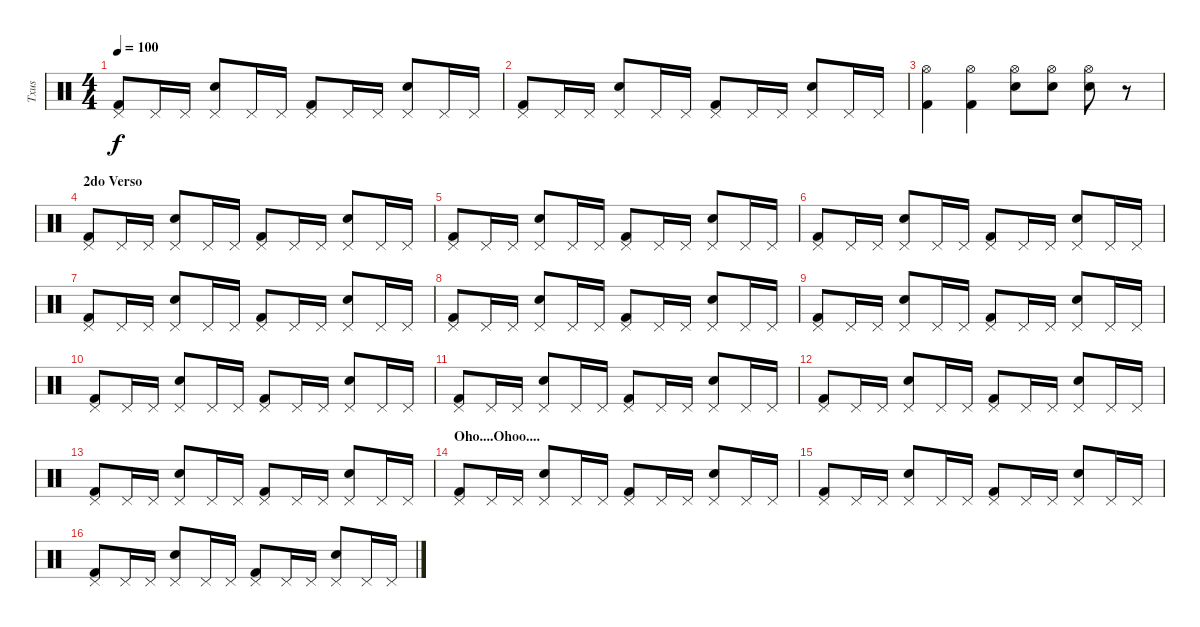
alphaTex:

\track ("Txus" "Txus") {instrument percussion}
\staff {score}
\articulation defaults
\ts (4 4)
\tempo 100
\clef neutral
\ks c
("Pedal Hi-Hat (hit)" "Kick (hit) 2").8{dy f} "Pedal Hi-Hat (hit)".16 "Pedal Hi-Hat (hit)".16 ("Pedal Hi-Hat (hit)" "Snare (hit) 2").8 "Pedal Hi-Hat (hit)".16 "Pedal Hi-Hat (hit)".16 ("Pedal Hi-Hat (hit)" "Kick (hit) 2").8 "Pedal Hi-Hat (hit)".16 "Pedal Hi-Hat (hit)".16 ("Pedal Hi-Hat (hit)" "Snare (hit) 2").8 "Pedal Hi-Hat (hit)".16 "Pedal Hi-Hat (hit)".16 |
("Pedal Hi-Hat (hit)" "Kick (hit) 2").8 "Pedal Hi-Hat (hit)".16 "Pedal Hi-Hat (hit)".16 ("Pedal Hi-Hat (hit)" "Snare (hit) 2").8 "Pedal Hi-Hat (hit)".16 "Pedal Hi-Hat (hit)".16 ("Pedal Hi-Hat (hit)" "Kick (hit) 2").8 "Pedal Hi-Hat (hit)".16 "Pedal Hi-Hat (hit)".16 ("Pedal Hi-Hat (hit)" "Snare (hit) 2").8 "Pedal Hi-Hat (hit)".16 "Pedal Hi-Hat (hit)".16 |
("Hi-Hat (open)" "Kick (hit) 2").4 ("Hi-Hat (open)" "Kick (hit) 2").4 ("Snare (hit) 2" "Hi-Hat (open)").8 ("Snare (hit) 2" "Hi-Hat (open)").8 ("Snare (hit) 2" "Hi-Hat (open)").8 r.8 |
\section ("" "2do Verso")
("Pedal Hi-Hat (hit)" "Kick (hit) 2").8 "Pedal Hi-Hat (hit)".16 "Pedal Hi-Hat (hit)".16 ("Pedal Hi-Hat (hit)" "Snare (hit) 2").8 "Pedal Hi-Hat (hit)".16 "Pedal Hi-Hat (hit)".16 ("Pedal Hi-Hat (hit)" "Kick (hit) 2").8 "Pedal Hi-Hat (hit)".16 "Pedal Hi-Hat (hit)".16 ("Pedal Hi-Hat (hit)" "Snare (hit) 2").8 "Pedal Hi-Hat (hit)".16 "Pedal Hi-Hat (hit)".16 |
("Pedal Hi-Hat (hit)" "Kick (hit) 2").8 "Pedal Hi-Hat (hit)".16 "Pedal Hi-Hat (hit)".16 ("Pedal Hi-Hat (hit)" "Snare (hit) 2").8 "Pedal Hi-Hat (hit)".16 "Pedal Hi-Hat (hit)".16 ("Pedal Hi-Hat (hit)" "Kick (hit) 2").8 "Pedal Hi-Hat (hit)".16 "Pedal Hi-Hat (hit)".16 ("Pedal Hi-Hat (hit)" "Snare (hit) 2").8 "Pedal Hi-Hat (hit)".16 "Pedal Hi-Hat (hit)".16 |
("Pedal Hi-Hat (hit)" "Kick (hit) 2").8 "Pedal Hi-Hat (hit)".16 "Pedal Hi-Hat (hit)".16 ("Pedal Hi-Hat (hit)" "Snare (hit) 2").8 "Pedal Hi-Hat (hit)".16 "Pedal Hi-Hat (hit)".16 ("Pedal Hi-Hat (hit)" "Kick (hit) 2").8 "Pedal Hi-Hat (hit)".16 "Pedal Hi-Hat (hit)".16 ("Pedal Hi-Hat (hit)" "Snare (hit) 2").8 "Pedal Hi-Hat (hit)".16 "Pedal Hi-Hat (hit)".16 |
("Pedal Hi-Hat (hit)" "Kick (hit) 2").8 "Pedal Hi-Hat (hit)".16 "Pedal Hi-Hat (hit)".16 ("Pedal Hi-Hat (hit)" "Snare (hit) 2").8 "Pedal Hi-Hat (hit)".16 "Pedal Hi-Hat (hit)".16 ("Pedal Hi-Hat (hit)" "Kick (hit) 2").8 "Pedal Hi-Hat (hit)".16 "Pedal Hi-Hat (hit)".16 ("Pedal Hi-Hat (hit)" "Snare (hit) 2").8 "Pedal Hi-Hat (hit)".16 "Pedal Hi-Hat (hit)".16 |
("Pedal Hi-Hat (hit)" "Kick (hit) 2").8 "Pedal Hi-Hat (hit)".16 "Pedal Hi-Hat (hit)".16 ("Pedal Hi-Hat (hit)" "Snare (hit) 2").8 "Pedal Hi-Hat (hit)".16 "Pedal Hi-Hat (hit)".16 ("Pedal Hi-Hat (hit)" "Kick (hit) 2").8 "Pedal Hi-Hat (hit)".16 "Pedal Hi-Hat (hit)".16 ("Pedal Hi-Hat (hit)" "Snare (hit) 2").8 "Pedal Hi-Hat (hit)".16 "Pedal Hi-Hat (hit)".16 |
("Pedal Hi-Hat (hit)" "Kick (hit) 2").8 "Pedal Hi-Hat (hit)".16 "Pedal Hi-Hat (hit)".16 ("Pedal Hi-Hat (hit)" "Snare (hit) 2").8 "Pedal Hi-Hat (hit)".16 "Pedal Hi-Hat (hit)".16 ("Pedal Hi-Hat (hit)" "Kick (hit) 2").8 "Pedal Hi-Hat (hit)".16 "Pedal Hi-Hat (hit)".16 ("Pedal Hi-Hat (hit)" "Snare (hit) 2").8 "Pedal Hi-Hat (hit)".16 "Pedal Hi-Hat (hit)".16 |
("Pedal Hi-Hat (hit)" "Kick (hit) 2").8 "Pedal Hi-Hat (hit)".16 "Pedal Hi-Hat (hit)".16 ("Pedal Hi-Hat (hit)" "Snare (hit) 2").8 "Pedal Hi-Hat (hit)".16 "Pedal Hi-Hat (hit)".16 ("Pedal Hi-Hat (hit)" "Kick (hit) 2").8 "Pedal Hi-Hat (hit)".16 "Pedal Hi-Hat (hit)".16 ("Pedal Hi-Hat (hit)" "Snare (hit) 2").8 "Pedal Hi-Hat (hit)".16 "Pedal Hi-Hat (hit)".16 |
("Pedal Hi-Hat (hit)" "Kick (hit) 2").8 "Pedal Hi-Hat (hit)".16 "Pedal Hi-Hat (hit)".16 ("Pedal Hi-Hat (hit)" "Snare (hit) 2").8 "Pedal Hi-Hat (hit)".16 "Pedal Hi-Hat (hit)".16 ("Pedal Hi-Hat (hit)" "Kick (hit) 2").8 "Pedal Hi-Hat (hit)".16 "Pedal Hi-Hat (hit)".16 ("Pedal Hi-Hat (hit)" "Snare (hit) 2").8 "Pedal Hi-Hat (hit)".16 "Pedal Hi-Hat (hit)".16 |
("Pedal Hi-Hat (hit)" "Kick (hit) 2").8 "Pedal Hi-Hat (hit)".16 "Pedal Hi-Hat (hit)".16 ("Pedal Hi-Hat (hit)" "Snare (hit) 2").8 "Pedal Hi-Hat (hit)".16 "Pedal Hi-Hat (hit)".16 ("Pedal Hi-Hat (hit)" "Kick (hit) 2").8 "Pedal Hi-Hat (hit)".16 "Pedal Hi-Hat (hit)".16 ("Pedal Hi-Hat (hit)" "Snare (hit) 2").8 "Pedal Hi-Hat (hit)".16 "Pedal Hi-Hat (hit)".16 |
("Pedal Hi-Hat (hit)" "Kick (hit) 2").8 "Pedal Hi-Hat (hit)".16 "Pedal Hi-Hat (hit)".16 ("Pedal Hi-Hat (hit)" "Snare (hit) 2").8 "Pedal Hi-Hat (hit)".16 "Pedal Hi-Hat (hit)".16 ("Pedal Hi-Hat (hit)" "Kick (hit) 2").8 "Pedal Hi-Hat (hit)".16 "Pedal Hi-Hat (hit)".16 ("Pedal Hi-Hat (hit)" "Snare (hit) 2").8 "Pedal Hi-Hat (hit)".16 "Pedal Hi-Hat (hit)".16 |
\section ("" "Oho....Ohoo....")
("Pedal Hi-Hat (hit)" "Kick (hit) 2").8 "Pedal Hi-Hat (hit)".16 "Pedal Hi-Hat (hit)".16 ("Pedal Hi-Hat (hit)" "Snare (hit) 2").8 "Pedal Hi-Hat (hit)".16 "Pedal Hi-Hat (hit)".16 ("Pedal Hi-Hat (hit)" "Kick (hit) 2").8 "Pedal Hi-Hat (hit)".16 "Pedal Hi-Hat (hit)".16 ("Pedal Hi-Hat (hit)" "Snare (hit) 2").8 "Pedal Hi-Hat (hit)".16 "Pedal Hi-Hat (hit)".16 |
("Pedal Hi-Hat (hit)" "Kick (hit) 2").8 "Pedal Hi-Hat (hit)".16 "Pedal Hi-Hat (hit)".16 ("Pedal Hi-Hat (hit)" "Snare (hit) 2").8 "Pedal Hi-Hat (hit)".16 "Pedal Hi-Hat (hit)".16 ("Pedal Hi-Hat (hit)" "Kick (hit) 2").8 "Pedal Hi-Hat (hit)".16 "Pedal Hi-Hat (hit)".16 ("Pedal Hi-Hat (hit)" "Snare (hit) 2").8 "Pedal Hi-Hat (hit)".16 "Pedal Hi-Hat (hit)".16 |
("Pedal Hi-Hat (hit)" "Kick (hit) 2").8 "Pedal Hi-Hat (hit)".16 "Pedal Hi-Hat (hit)".16 ("Pedal Hi-Hat (hit)" "Snare (hit) 2").8 "Pedal Hi-Hat (hit)".16 "Pedal Hi-Hat (hit)".16 ("Pedal Hi-Hat (hit)" "Kick (hit) 2").8 "Pedal Hi-Hat (hit)".16 "Pedal Hi-Hat (hit)".16 ("Pedal Hi-Hat (hit)" "Snare (hit) 2").8 "Pedal Hi-Hat (hit)".16 "Pedal Hi-Hat (hit)".16
